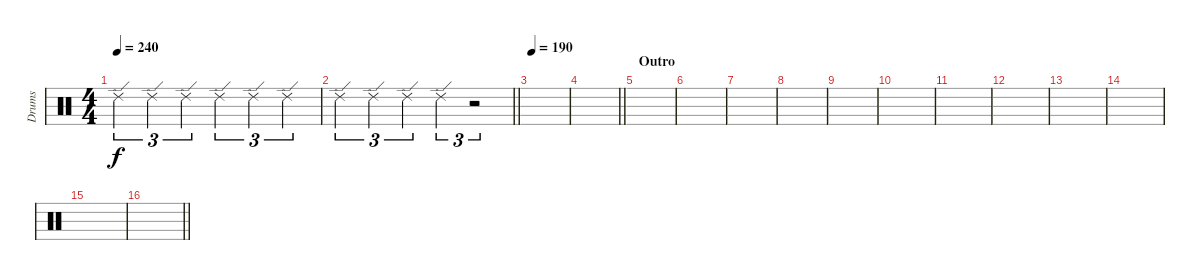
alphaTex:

\track ("Drums" "Drums") {instrument percussion}
\staff {score}
\articulation defaults
\ts (4 4)
\tempo 240
\clef neutral
\ks c "Ride (edge) 2".4{tu (3 2) dy f} "Ride (edge) 2".4{tu (3 2)} "Ride (edge) 2".4{tu (3 2)} "Ride (edge) 2".4{tu (3 2)} "Ride (edge) 2".4{tu (3 2)} "Ride (edge) 2".4{tu (3 2)}
|
\barLineRight lightlight "Ride (edge) 2".4{tu (3 2)} "Ride (edge) 2".4{tu (3 2)} "Ride (edge) 2".4{tu (3 2)} "Ride (edge) 2".4{tu (3 2)}
r.2{tu (3 2)} |
\tempo 190
|
\barLineRight lightlight
|
\section ("" "Outro")
|
|
|
|
|
|
|
|
|
|
|
\barLineRight lightlight
